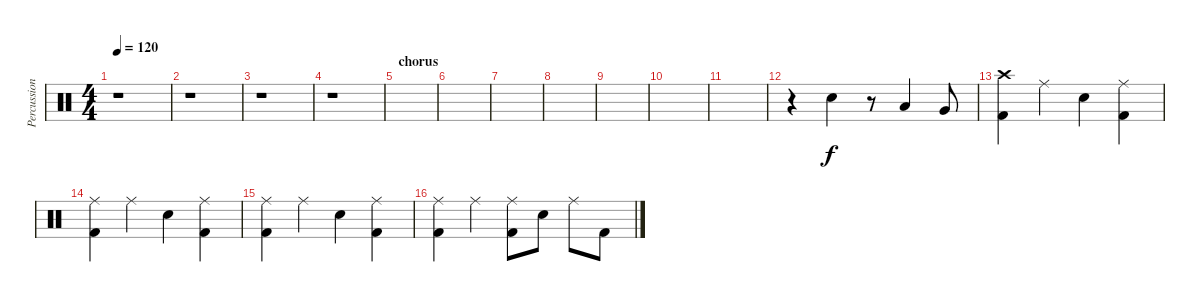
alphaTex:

\track ("Percussion" "Percussion") {instrument percussion}
\staff {score}
\articulation defaults
\ts (4 4)
\tempo 120
\clef neutral
\ks c
r.1{dy f} |
r.1 |
r.1 |
r.1 |
\section ("" "chorus")
|
|
|
|
|
|
|
r.4 "Snare (hit) 2".4 r.8 "Low Tom (hit)".4 "Very Low Tom (hit)".8 |
("Crash high (hit)" "Kick (hit) 2").4 "Ride (middle)".4 "Snare (hit) 2".4 ("Ride (middle)" "Kick (hit) 2").4 |
("Ride (middle)" "Kick (hit) 2").4 "Ride (middle)".4 "Snare (hit) 2".4 ("Ride (middle)" "Kick (hit) 2").4 |
("Ride (middle)" "Kick (hit) 2").4 "Ride (middle)".4 "Snare (hit) 2".4 ("Ride (middle)" "Kick (hit) 2").4 |
("Ride (middle)" "Kick (hit) 2").4 "Ride (middle)".4 ("Ride (middle)" "Kick (hit) 2").8 "Snare (hit) 2".8 "Ride (middle)".8 "Kick (hit) 2".8
